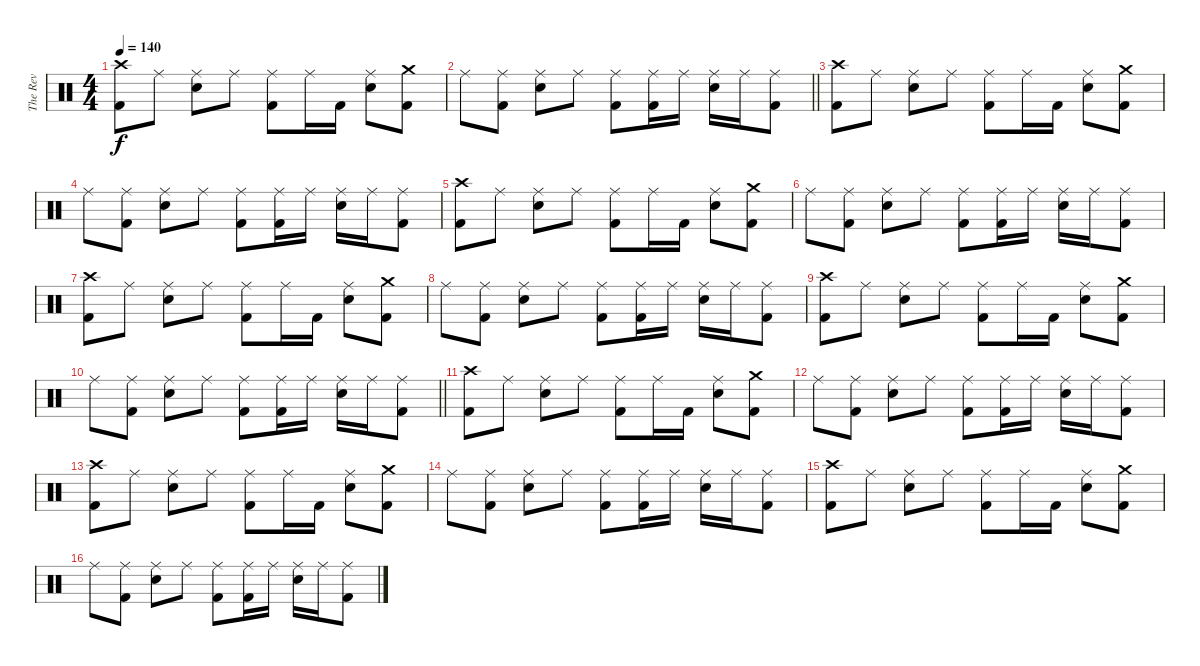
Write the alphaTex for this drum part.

\track ("The Rev" "The Rev") {instrument percussion}
\staff {score}
\articulation defaults
\ts (4 4)
\tempo 140
\clef neutral
\ks c
("Crash high (hit)" "Kick (hit) 2").8{dy f} "Ride (middle)".8 ("Ride (middle)" "Electric Snare (hit)").8 "Ride (middle)".8 ("Ride (middle)" "Kick (hit) 2").8 "Ride (middle)".16 "Kick (hit) 2".16 ("Ride (middle)" "Electric Snare (hit)").8 ("Crash medium (hit)" "Kick (hit) 2").8 |
\barLineRight lightlight "Ride (middle)".8
("Ride (middle)" "Kick (hit) 2").8 ("Ride (middle)" "Electric Snare (hit)").8 "Ride (middle)".8 ("Ride (middle)" "Kick (hit) 2").8 ("Ride (middle)" "Kick (hit) 2").16 "Ride (middle)".16 ("Ride (middle)" "Electric Snare (hit)").16 "Ride (middle)".16 ("Ride (middle)" "Kick (hit) 2").8 |
\section ("" " ")
("Crash high (hit)" "Kick (hit) 2").8 "Ride (middle)".8 ("Ride (middle)" "Electric Snare (hit)").8 "Ride (middle)".8 ("Ride (middle)" "Kick (hit) 2").8 "Ride (middle)".16 "Kick (hit) 2".16 ("Ride (middle)" "Electric Snare (hit)").8 ("Crash medium (hit)" "Kick (hit) 2").8 |
"Ride (middle)".8 ("Ride (middle)" "Kick (hit) 2").8 ("Ride (middle)" "Electric Snare (hit)").8 "Ride (middle)".8 ("Ride (middle)" "Kick (hit) 2").8 ("Ride (middle)" "Kick (hit) 2").16 "Ride (middle)".16 ("Ride (middle)" "Electric Snare (hit)").16 "Ride (middle)".16 ("Ride (middle)" "Kick (hit) 2").8 |
("Crash high (hit)" "Kick (hit) 2").8 "Ride (middle)".8 ("Ride (middle)" "Electric Snare (hit)").8 "Ride (middle)".8 ("Ride (middle)" "Kick (hit) 2").8 "Ride (middle)".16 "Kick (hit) 2".16 ("Ride (middle)" "Electric Snare (hit)").8 ("Crash medium (hit)" "Kick (hit) 2").8 |
"Ride (middle)".8 ("Ride (middle)" "Kick (hit) 2").8 ("Ride (middle)" "Electric Snare (hit)").8 "Ride (middle)".8 ("Ride (middle)" "Kick (hit) 2").8 ("Ride (middle)" "Kick (hit) 2").16 "Ride (middle)".16 ("Ride (middle)" "Electric Snare (hit)").16 "Ride (middle)".16 ("Ride (middle)" "Kick (hit) 2").8 |
("Crash high (hit)" "Kick (hit) 2").8 "Ride (middle)".8 ("Ride (middle)" "Electric Snare (hit)").8 "Ride (middle)".8 ("Ride (middle)" "Kick (hit) 2").8 "Ride (middle)".16 "Kick (hit) 2".16 ("Ride (middle)" "Electric Snare (hit)").8 ("Crash medium (hit)" "Kick (hit) 2").8 |
"Ride (middle)".8 ("Ride (middle)" "Kick (hit) 2").8 ("Ride (middle)" "Electric Snare (hit)").8 "Ride (middle)".8 ("Ride (middle)" "Kick (hit) 2").8 ("Ride (middle)" "Kick (hit) 2").16 "Ride (middle)".16 ("Ride (middle)" "Electric Snare (hit)").16 "Ride (middle)".16 ("Ride (middle)" "Kick (hit) 2").8 |
("Crash high (hit)" "Kick (hit) 2").8 "Ride (middle)".8 ("Ride (middle)" "Electric Snare (hit)").8 "Ride (middle)".8 ("Ride (middle)" "Kick (hit) 2").8 "Ride (middle)".16 "Kick (hit) 2".16 ("Ride (middle)" "Electric Snare (hit)").8 ("Crash medium (hit)" "Kick (hit) 2").8 |
\barLineRight lightlight "Ride (middle)".8
("Ride (middle)" "Kick (hit) 2").8 ("Ride (middle)" "Electric Snare (hit)").8 "Ride (middle)".8 ("Ride (middle)" "Kick (hit) 2").8 ("Ride (middle)" "Kick (hit) 2").16 "Ride (middle)".16 ("Ride (middle)" "Electric Snare (hit)").16 "Ride (middle)".16 ("Ride (middle)" "Kick (hit) 2").8 |
("Crash high (hit)" "Kick (hit) 2").8 "Ride (middle)".8 ("Ride (middle)" "Electric Snare (hit)").8 "Ride (middle)".8 ("Ride (middle)" "Kick (hit) 2").8 "Ride (middle)".16 "Kick (hit) 2".16 ("Ride (middle)" "Electric Snare (hit)").8 ("Crash medium (hit)" "Kick (hit) 2").8 |
"Ride (middle)".8 ("Ride (middle)" "Kick (hit) 2").8 ("Ride (middle)" "Electric Snare (hit)").8 "Ride (middle)".8 ("Ride (middle)" "Kick (hit) 2").8 ("Ride (middle)" "Kick (hit) 2").16 "Ride (middle)".16 ("Ride (middle)" "Electric Snare (hit)").16 "Ride (middle)".16 ("Ride (middle)" "Kick (hit) 2").8 |
("Crash high (hit)" "Kick (hit) 2").8 "Ride (middle)".8 ("Ride (middle)" "Electric Snare (hit)").8 "Ride (middle)".8 ("Ride (middle)" "Kick (hit) 2").8 "Ride (middle)".16 "Kick (hit) 2".16 ("Ride (middle)" "Electric Snare (hit)").8 ("Crash medium (hit)" "Kick (hit) 2").8 |
"Ride (middle)".8 ("Ride (middle)" "Kick (hit) 2").8 ("Ride (middle)" "Electric Snare (hit)").8 "Ride (middle)".8 ("Ride (middle)" "Kick (hit) 2").8 ("Ride (middle)" "Kick (hit) 2").16 "Ride (middle)".16 ("Ride (middle)" "Electric Snare (hit)").16 "Ride (middle)".16 ("Ride (middle)" "Kick (hit) 2").8 |
("Crash high (hit)" "Kick (hit) 2").8 "Ride (middle)".8 ("Ride (middle)" "Electric Snare (hit)").8 "Ride (middle)".8 ("Ride (middle)" "Kick (hit) 2").8 "Ride (middle)".16 "Kick (hit) 2".16 ("Ride (middle)" "Electric Snare (hit)").8 ("Crash medium (hit)" "Kick (hit) 2").8 |
"Ride (middle)".8 ("Ride (middle)" "Kick (hit) 2").8 ("Ride (middle)" "Electric Snare (hit)").8 "Ride (middle)".8 ("Ride (middle)" "Kick (hit) 2").8 ("Ride (middle)" "Kick (hit) 2").16 "Ride (middle)".16 ("Ride (middle)" "Electric Snare (hit)").16 "Ride (middle)".16 ("Ride (middle)" "Kick (hit) 2").8
